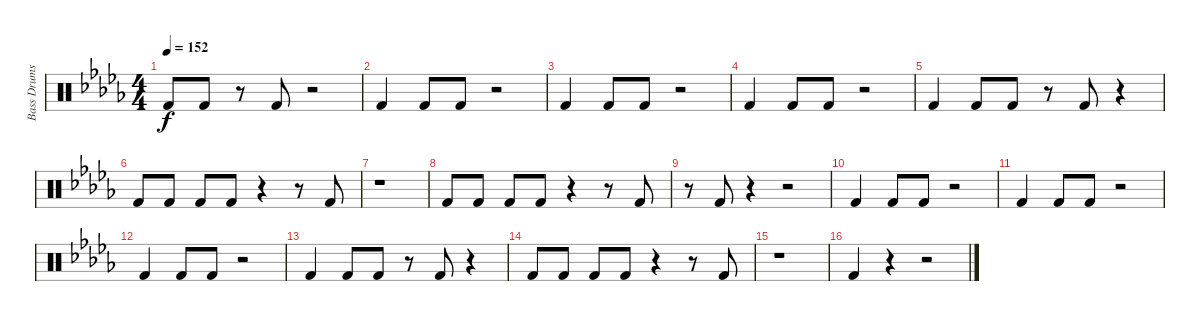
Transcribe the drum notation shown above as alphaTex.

\track ("Bass Drums" "Bass Drums") {instrument percussion}
\staff {score}
\articulation defaults
\ts (4 4)
\tempo 152
\clef neutral
\ks db "Kick (hit) 2".8{dy f} "Kick (hit) 2".8
r.8 "Kick (hit) 2".8 r.2 |
"Kick (hit) 2".4 "Kick (hit) 2".8 "Kick (hit) 2".8 r.2 |
"Kick (hit) 2".4 "Kick (hit) 2".8 "Kick (hit) 2".8 r.2 |
"Kick (hit) 2".4 "Kick (hit) 2".8 "Kick (hit) 2".8 r.2 |
"Kick (hit) 2".4 "Kick (hit) 2".8 "Kick (hit) 2".8 r.8 "Kick (hit) 2".8 r.4 |
"Kick (hit) 2".8 "Kick (hit) 2".8 "Kick (hit) 2".8 "Kick (hit) 2".8 r.4 r.8 "Kick (hit) 2".8 |
r.1 |
"Kick (hit) 2".8 "Kick (hit) 2".8 "Kick (hit) 2".8 "Kick (hit) 2".8 r.4 r.8 "Kick (hit) 2".8 |
r.8 "Kick (hit) 2".8 r.4 r.2 |
"Kick (hit) 2".4 "Kick (hit) 2".8 "Kick (hit) 2".8 r.2 |
"Kick (hit) 2".4 "Kick (hit) 2".8 "Kick (hit) 2".8 r.2 |
"Kick (hit) 2".4 "Kick (hit) 2".8 "Kick (hit) 2".8 r.2 |
"Kick (hit) 2".4 "Kick (hit) 2".8 "Kick (hit) 2".8 r.8 "Kick (hit) 2".8 r.4 |
"Kick (hit) 2".8 "Kick (hit) 2".8 "Kick (hit) 2".8 "Kick (hit) 2".8 r.4 r.8 "Kick (hit) 2".8 |
r.1 |
"Kick (hit) 2".4 r.4 r.2
